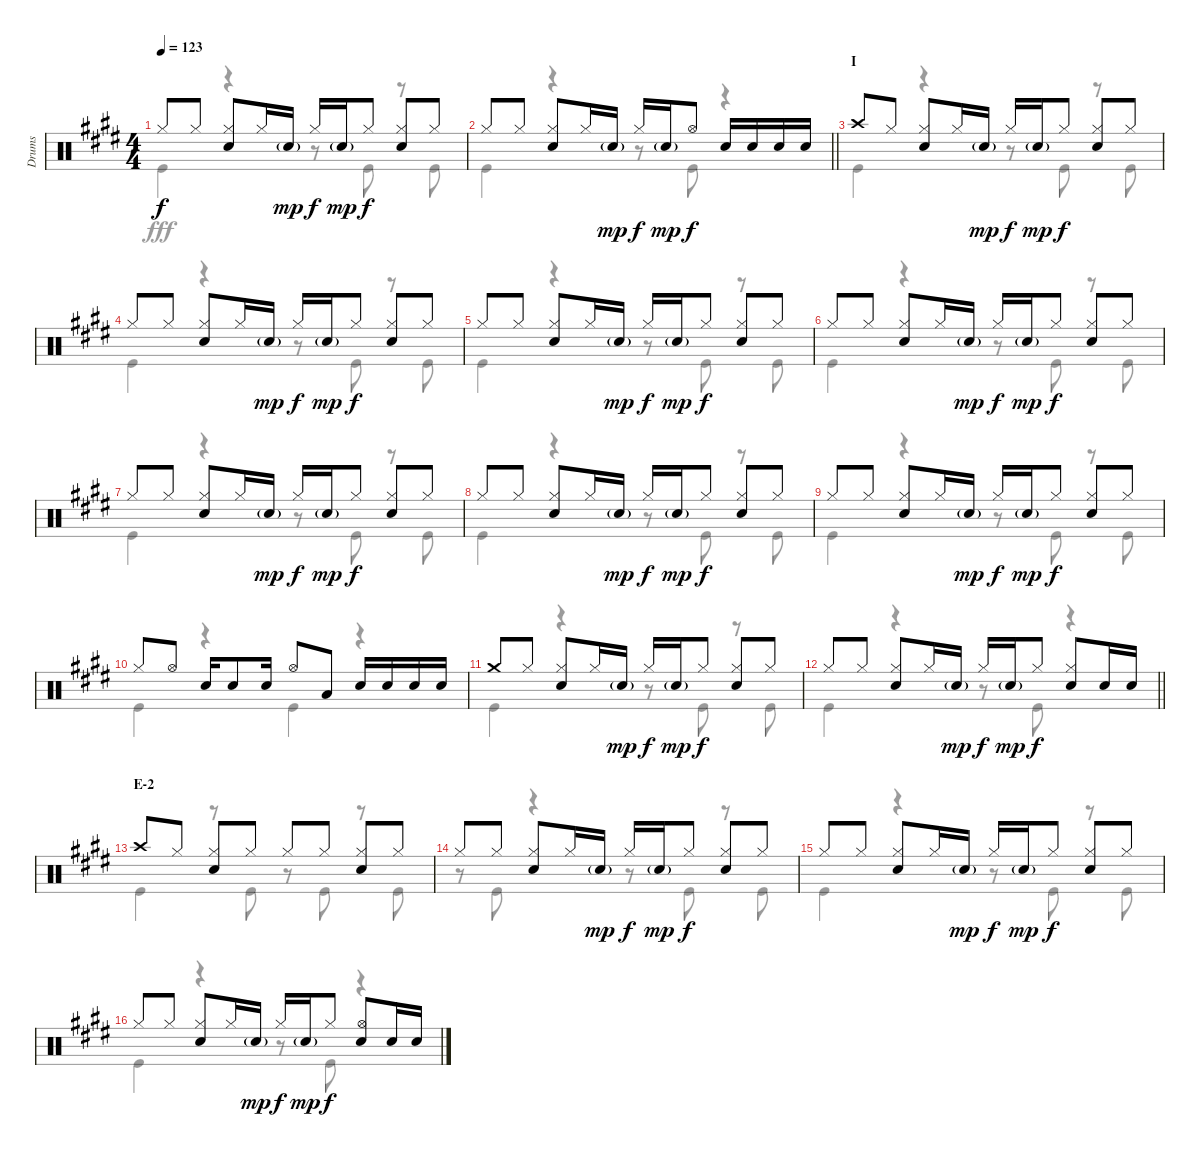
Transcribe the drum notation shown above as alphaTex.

\track ("Drums" "Drums") {instrument percussion}
\staff {score}
\articulation defaults
\voice
\ts (4 4)
\tempo 123
\clef neutral
\ks e "Hi-Hat (closed)".8{dy f} "Hi-Hat (closed)".8
("Hi-Hat (closed)" "Snare (hit) 2").8 "Hi-Hat (closed)".16 "Snare (hit) 2"{g}.16{dy mp} "Hi-Hat (closed)".16{dy f} "Snare (hit) 2"{g}.16{dy mp} "Hi-Hat (closed)".8{dy f} ("Hi-Hat (closed)" "Snare (hit) 2").8 "Hi-Hat (closed)".8 |
\barLineRight lightlight "Hi-Hat (closed)".8 "Hi-Hat (closed)".8
("Hi-Hat (closed)" "Snare (hit) 2").8 "Hi-Hat (closed)".16 "Snare (hit) 2"{g}.16{dy mp} "Hi-Hat (closed)".16{dy f} "Snare (hit) 2"{g}.16{dy mp} "Hi-Hat (open)".8{dy f} "Snare (hit) 2".16 "Snare (hit) 2".16 "Snare (hit) 2".16 "Snare (hit) 2".16 |
\section ("" "I")
"Crash high (hit)".8 "Hi-Hat (closed)".8 ("Hi-Hat (closed)" "Snare (hit) 2").8 "Hi-Hat (closed)".16 "Snare (hit) 2"{g}.16{dy mp} "Hi-Hat (closed)".16{dy f} "Snare (hit) 2"{g}.16{dy mp} "Hi-Hat (closed)".8{dy f} ("Hi-Hat (closed)" "Snare (hit) 2").8 "Hi-Hat (closed)".8 |
"Hi-Hat (closed)".8 "Hi-Hat (closed)".8 ("Hi-Hat (closed)" "Snare (hit) 2").8 "Hi-Hat (closed)".16 "Snare (hit) 2"{g}.16{dy mp} "Hi-Hat (closed)".16{dy f} "Snare (hit) 2"{g}.16{dy mp} "Hi-Hat (closed)".8{dy f} ("Hi-Hat (closed)" "Snare (hit) 2").8 "Hi-Hat (closed)".8 |
"Hi-Hat (closed)".8 "Hi-Hat (closed)".8 ("Hi-Hat (closed)" "Snare (hit) 2").8 "Hi-Hat (closed)".16 "Snare (hit) 2"{g}.16{dy mp} "Hi-Hat (closed)".16{dy f} "Snare (hit) 2"{g}.16{dy mp} "Hi-Hat (closed)".8{dy f} ("Hi-Hat (closed)" "Snare (hit) 2").8 "Hi-Hat (closed)".8 |
"Hi-Hat (closed)".8 "Hi-Hat (closed)".8 ("Hi-Hat (closed)" "Snare (hit) 2").8 "Hi-Hat (closed)".16 "Snare (hit) 2"{g}.16{dy mp} "Hi-Hat (closed)".16{dy f} "Snare (hit) 2"{g}.16{dy mp} "Hi-Hat (closed)".8{dy f} ("Hi-Hat (closed)" "Snare (hit) 2").8 "Hi-Hat (closed)".8 |
"Hi-Hat (closed)".8 "Hi-Hat (closed)".8 ("Hi-Hat (closed)" "Snare (hit) 2").8 "Hi-Hat (closed)".16 "Snare (hit) 2"{g}.16{dy mp} "Hi-Hat (closed)".16{dy f} "Snare (hit) 2"{g}.16{dy mp} "Hi-Hat (closed)".8{dy f} ("Hi-Hat (closed)" "Snare (hit) 2").8 "Hi-Hat (closed)".8 |
"Hi-Hat (closed)".8 "Hi-Hat (closed)".8 ("Hi-Hat (closed)" "Snare (hit) 2").8 "Hi-Hat (closed)".16 "Snare (hit) 2"{g}.16{dy mp} "Hi-Hat (closed)".16{dy f} "Snare (hit) 2"{g}.16{dy mp} "Hi-Hat (closed)".8{dy f} ("Hi-Hat (closed)" "Snare (hit) 2").8 "Hi-Hat (closed)".8 |
"Hi-Hat (closed)".8 "Hi-Hat (closed)".8 ("Hi-Hat (closed)" "Snare (hit) 2").8 "Hi-Hat (closed)".16 "Snare (hit) 2"{g}.16{dy mp} "Hi-Hat (closed)".16{dy f} "Snare (hit) 2"{g}.16{dy mp} "Hi-Hat (closed)".8{dy f} ("Hi-Hat (closed)" "Snare (hit) 2").8 "Hi-Hat (closed)".8 |
"Hi-Hat (closed)".8 "Hi-Hat (open)".8 "Snare (hit) 2".16 "Snare (hit) 2".8 "Snare (hit) 2".16 "Hi-Hat (open)".8 "Low Tom (hit)".8 "Snare (hit) 2".16 "Snare (hit) 2".16 "Snare (hit) 2".16 "Snare (hit) 2".16 |
"Crash medium (hit)".8 "Hi-Hat (closed)".8 ("Hi-Hat (closed)" "Snare (hit) 2").8 "Hi-Hat (closed)".16 "Snare (hit) 2"{g}.16{dy mp} "Hi-Hat (closed)".16{dy f} "Snare (hit) 2"{g}.16{dy mp} "Hi-Hat (closed)".8{dy f} ("Hi-Hat (closed)" "Snare (hit) 2").8 "Hi-Hat (closed)".8 |
\barLineRight lightlight "Hi-Hat (closed)".8 "Hi-Hat (closed)".8
("Hi-Hat (closed)" "Snare (hit) 2").8 "Hi-Hat (closed)".16 "Snare (hit) 2"{g}.16{dy mp} "Hi-Hat (closed)".16{dy f} "Snare (hit) 2"{g}.16{dy mp} "Hi-Hat (closed)".8{dy f} ("Hi-Hat (closed)" "Snare (hit) 2").8 "Snare (hit) 2".16 "Snare (hit) 2".16 |
\section ("" "E-2")
"Crash high (hit)".8 "Hi-Hat (closed)".8 ("Hi-Hat (closed)" "Snare (hit) 2").8 "Hi-Hat (closed)".8 "Hi-Hat (closed)".8 "Hi-Hat (closed)".8 ("Hi-Hat (closed)" "Snare (hit) 2").8 "Hi-Hat (closed)".8 |
"Hi-Hat (closed)".8 "Hi-Hat (closed)".8 ("Hi-Hat (closed)" "Snare (hit) 2").8 "Hi-Hat (closed)".16 "Snare (hit) 2"{g}.16{dy mp} "Hi-Hat (closed)".16{dy f} "Snare (hit) 2"{g}.16{dy mp} "Hi-Hat (closed)".8{dy f} ("Hi-Hat (closed)" "Snare (hit) 2").8 "Hi-Hat (closed)".8 |
"Hi-Hat (closed)".8 "Hi-Hat (closed)".8 ("Hi-Hat (closed)" "Snare (hit) 2").8 "Hi-Hat (closed)".16 "Snare (hit) 2"{g}.16{dy mp} "Hi-Hat (closed)".16{dy f} "Snare (hit) 2"{g}.16{dy mp} "Hi-Hat (closed)".8{dy f} ("Hi-Hat (closed)" "Snare (hit) 2").8 "Hi-Hat (closed)".8 |
"Hi-Hat (closed)".8 "Hi-Hat (closed)".8 ("Hi-Hat (closed)" "Snare (hit) 2").8 "Hi-Hat (closed)".16 "Snare (hit) 2"{g}.16{dy mp} "Hi-Hat (closed)".16{dy f} "Snare (hit) 2"{g}.16{dy mp} "Hi-Hat (closed)".8{dy f} ("Hi-Hat (open)" "Snare (hit) 2").8 "Snare (hit) 2".16 "Snare (hit) 2".16
\voice
\clef neutral
\ottava regular
\simile none
\ks e "Kick (hit)".4{dy fff}
r.4 r.8 "Kick (hit)".8 r.8 "Kick (hit)".8 |
\barLineRight lightlight "Kick (hit)".4
r.4 r.8 "Kick (hit)".8 r.4 |
"Kick (hit)".4 r.4 r.8 "Kick (hit)".8 r.8 "Kick (hit)".8 |
"Kick (hit)".4 r.4 r.8 "Kick (hit)".8 r.8 "Kick (hit)".8 |
"Kick (hit)".4 r.4 r.8 "Kick (hit)".8 r.8 "Kick (hit)".8 |
"Kick (hit)".4 r.4 r.8 "Kick (hit)".8 r.8 "Kick (hit)".8 |
"Kick (hit)".4 r.4 r.8 "Kick (hit)".8 r.8 "Kick (hit)".8 |
"Kick (hit)".4 r.4 r.8 "Kick (hit)".8 r.8 "Kick (hit)".8 |
"Kick (hit)".4 r.4 r.8 "Kick (hit)".8 r.8 "Kick (hit)".8 |
"Kick (hit)".4 r.4 "Kick (hit)".4 r.4 |
"Kick (hit)".4 r.4 r.8 "Kick (hit)".8 r.8 "Kick (hit)".8 |
\barLineRight lightlight "Kick (hit)".4
r.4 r.8 "Kick (hit)".8 r.4 |
"Kick (hit)".4 r.8 "Kick (hit)".8 r.8 "Kick (hit)".8 r.8 "Kick (hit)".8 |
r.8 "Kick (hit)".8 r.4 r.8 "Kick (hit)".8 r.8 "Kick (hit)".8 |
"Kick (hit)".4 r.4 r.8 "Kick (hit)".8 r.8 "Kick (hit)".8 |
"Kick (hit)".4 r.4 r.8 "Kick (hit)".8 r.4
